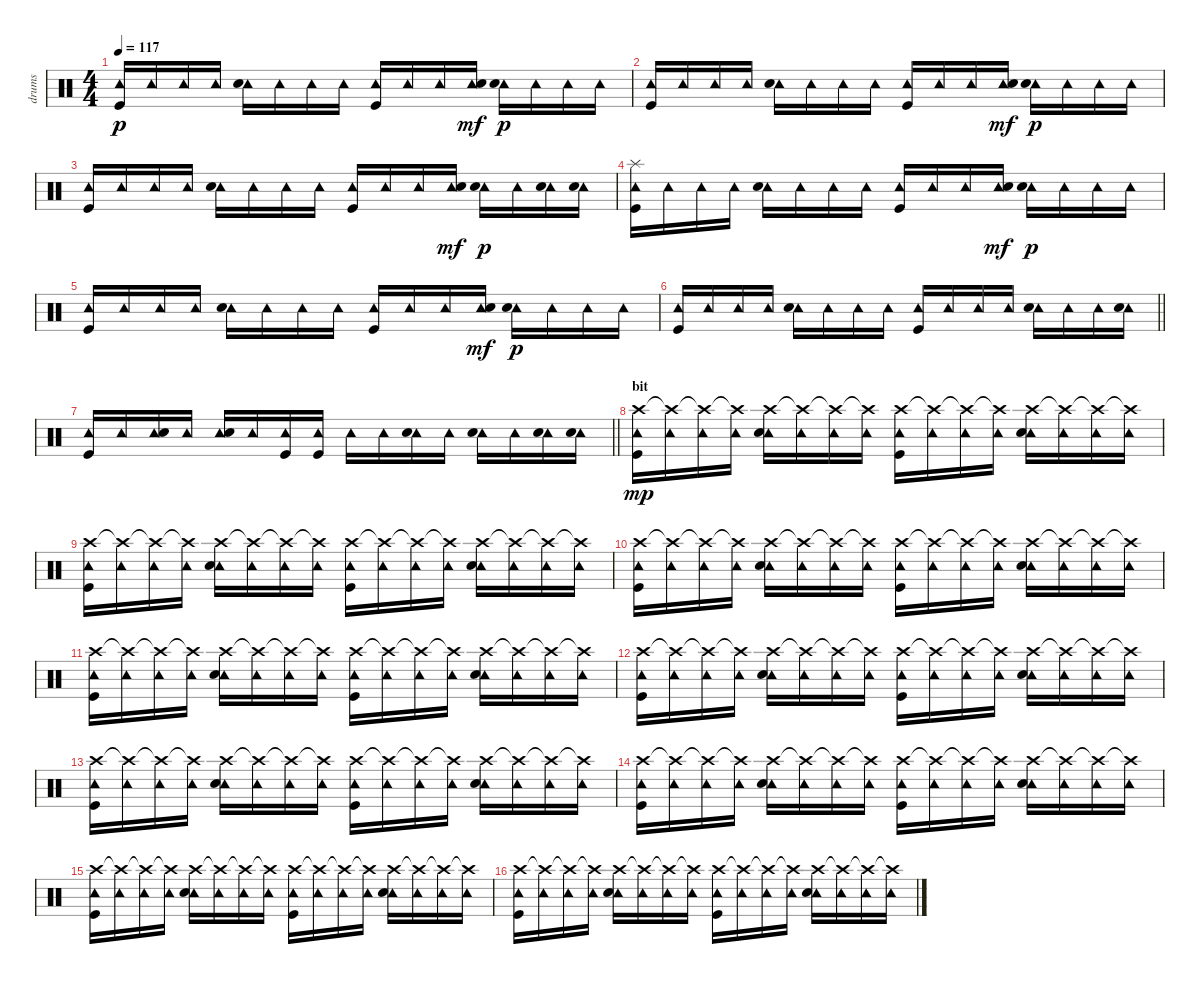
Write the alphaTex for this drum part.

\track ("drums" "drums") {instrument percussion}
\staff {score}
\articulation defaults
\ts (4 4)
\tempo 117
\clef neutral
\ks c
("Tambourine (hit)" "Kick (hit)").16{dy p} "Tambourine (hit)".16 "Tambourine (hit)".16 "Tambourine (hit)".16 ("Tambourine (hit)" "Snare (hit) 2").16 "Tambourine (hit)".16 "Tambourine (hit)".16 "Tambourine (hit)".16 ("Tambourine (hit)" "Kick (hit)").16 "Tambourine (hit)".16 "Tambourine (hit)".16 ("Tambourine (hit)" "Electric Snare (hit)").16{dy mf} ("Tambourine (hit)" "Electric Snare (hit)").16{dy p} "Tambourine (hit)".16 "Tambourine (hit)".16 "Tambourine (hit)".16 |
("Tambourine (hit)" "Kick (hit)").16 "Tambourine (hit)".16 "Tambourine (hit)".16 "Tambourine (hit)".16 ("Tambourine (hit)" "Snare (hit) 2").16 "Tambourine (hit)".16 "Tambourine (hit)".16 "Tambourine (hit)".16 ("Tambourine (hit)" "Kick (hit)").16 "Tambourine (hit)".16 "Tambourine (hit)".16 ("Tambourine (hit)" "Electric Snare (hit)").16{dy mf} ("Tambourine (hit)" "Electric Snare (hit)").16{dy p} "Tambourine (hit)".16 "Tambourine (hit)".16 "Tambourine (hit)".16 |
("Tambourine (hit)" "Kick (hit)").16 "Tambourine (hit)".16 "Tambourine (hit)".16 "Tambourine (hit)".16 ("Tambourine (hit)" "Snare (hit) 2").16 "Tambourine (hit)".16 "Tambourine (hit)".16 "Tambourine (hit)".16 ("Tambourine (hit)" "Kick (hit)").16 "Tambourine (hit)".16 "Tambourine (hit)".16 ("Tambourine (hit)" "Electric Snare (hit)").16{dy mf} ("Tambourine (hit)" "Electric Snare (hit)").16{dy p} "Tambourine (hit)".16 ("Tambourine (hit)" "Electric Snare (hit)").16 ("Tambourine (hit)" "Electric Snare (hit)").16 |
("Splash (hit)" "Tambourine (hit)" "Kick (hit)").16 "Tambourine (hit)".16 "Tambourine (hit)".16 "Tambourine (hit)".16 ("Tambourine (hit)" "Snare (hit) 2").16 "Tambourine (hit)".16 "Tambourine (hit)".16 "Tambourine (hit)".16 ("Tambourine (hit)" "Kick (hit)").16 "Tambourine (hit)".16 "Tambourine (hit)".16 ("Tambourine (hit)" "Electric Snare (hit)").16{dy mf} ("Tambourine (hit)" "Electric Snare (hit)").16{dy p} "Tambourine (hit)".16 "Tambourine (hit)".16 "Tambourine (hit)".16 |
("Tambourine (hit)" "Kick (hit)").16 "Tambourine (hit)".16 "Tambourine (hit)".16 "Tambourine (hit)".16 ("Tambourine (hit)" "Snare (hit) 2").16 "Tambourine (hit)".16 "Tambourine (hit)".16 "Tambourine (hit)".16 ("Tambourine (hit)" "Kick (hit)").16 "Tambourine (hit)".16 "Tambourine (hit)".16 ("Tambourine (hit)" "Electric Snare (hit)").16{dy mf} ("Tambourine (hit)" "Electric Snare (hit)").16{dy p} "Tambourine (hit)".16 "Tambourine (hit)".16 "Tambourine (hit)".16 |
\barLineRight lightlight
("Tambourine (hit)" "Kick (hit)").16 "Tambourine (hit)".16 "Tambourine (hit)".16 "Tambourine (hit)".16 ("Tambourine (hit)" "Snare (hit) 2").16 "Tambourine (hit)".16 "Tambourine (hit)".16 "Tambourine (hit)".16 ("Tambourine (hit)" "Kick (hit)").16 "Tambourine (hit)".16 "Tambourine (hit)".16 "Tambourine (hit)".16 ("Tambourine (hit)" "Snare (hit) 2").16 "Tambourine (hit)".16 "Tambourine (hit)".16 ("Tambourine (hit)" "Snare (hit) 2").16 |
\barLineRight lightlight
("Tambourine (hit)" "Kick (hit)").16 "Tambourine (hit)".16 ("Tambourine (hit)" "Snare (hit) 2").16 "Tambourine (hit)".16 ("Tambourine (hit)" "Snare (hit) 2").16 "Tambourine (hit)".16 ("Tambourine (hit)" "Kick (hit)").16 ("Tambourine (hit)" "Kick (hit)").16 "Tambourine (hit)".16 "Tambourine (hit)".16 ("Tambourine (hit)" "Snare (hit) 2").16 "Tambourine (hit)".16 ("Tambourine (hit)" "Snare (hit) 2").16 "Tambourine (hit)".16 ("Tambourine (hit)" "Electric Snare (hit)").16 ("Tambourine (hit)" "Electric Snare (hit)").16 |
\section ("" "bit")
("Crash high (hit)" "Tambourine (hit)" "Kick (hit)").16{dy mp} ("Crash high (hit)"{t} "Tambourine (hit)").16 ("Crash high (hit)"{t} "Tambourine (hit)").16 ("Crash high (hit)"{t} "Tambourine (hit)").16 ("Crash high (hit)" "Tambourine (hit)" "Snare (hit) 2").16 ("Crash high (hit)"{t} "Tambourine (hit)").16 ("Crash high (hit)"{t} "Tambourine (hit)").16 ("Crash high (hit)"{t} "Tambourine (hit)").16 ("Crash high (hit)" "Tambourine (hit)" "Kick (hit)").16 ("Crash high (hit)"{t} "Tambourine (hit)").16 ("Crash high (hit)"{t} "Tambourine (hit)").16 ("Crash high (hit)"{t} "Tambourine (hit)").16 ("Crash high (hit)" "Tambourine (hit)" "Snare (hit) 2").16 ("Crash high (hit)"{t} "Tambourine (hit)").16 ("Crash high (hit)"{t} "Tambourine (hit)").16 ("Crash high (hit)"{t} "Tambourine (hit)").16 |
("Crash high (hit)" "Tambourine (hit)" "Kick (hit)").16 ("Crash high (hit)"{t} "Tambourine (hit)").16 ("Crash high (hit)"{t} "Tambourine (hit)").16 ("Crash high (hit)"{t} "Tambourine (hit)").16 ("Crash high (hit)" "Tambourine (hit)" "Snare (hit) 2").16 ("Crash high (hit)"{t} "Tambourine (hit)").16 ("Crash high (hit)"{t} "Tambourine (hit)").16 ("Crash high (hit)"{t} "Tambourine (hit)").16 ("Crash high (hit)" "Tambourine (hit)" "Kick (hit)").16 ("Crash high (hit)"{t} "Tambourine (hit)").16 ("Crash high (hit)"{t} "Tambourine (hit)").16 ("Crash high (hit)"{t} "Tambourine (hit)").16 ("Crash high (hit)" "Tambourine (hit)" "Snare (hit) 2").16 ("Crash high (hit)"{t} "Tambourine (hit)").16 ("Crash high (hit)"{t} "Tambourine (hit)").16 ("Crash high (hit)"{t} "Tambourine (hit)").16 |
("Crash high (hit)" "Tambourine (hit)" "Kick (hit)").16 ("Crash high (hit)"{t} "Tambourine (hit)").16 ("Crash high (hit)"{t} "Tambourine (hit)").16 ("Crash high (hit)"{t} "Tambourine (hit)").16 ("Crash high (hit)" "Tambourine (hit)" "Snare (hit) 2").16 ("Crash high (hit)"{t} "Tambourine (hit)").16 ("Crash high (hit)"{t} "Tambourine (hit)").16 ("Crash high (hit)"{t} "Tambourine (hit)").16 ("Crash high (hit)" "Tambourine (hit)" "Kick (hit)").16 ("Crash high (hit)"{t} "Tambourine (hit)").16 ("Crash high (hit)"{t} "Tambourine (hit)").16 ("Crash high (hit)"{t} "Tambourine (hit)").16 ("Crash high (hit)" "Tambourine (hit)" "Snare (hit) 2").16 ("Crash high (hit)"{t} "Tambourine (hit)").16 ("Crash high (hit)"{t} "Tambourine (hit)").16 ("Crash high (hit)"{t} "Tambourine (hit)").16 |
("Crash high (hit)" "Tambourine (hit)" "Kick (hit)").16 ("Crash high (hit)"{t} "Tambourine (hit)").16 ("Crash high (hit)"{t} "Tambourine (hit)").16 ("Crash high (hit)"{t} "Tambourine (hit)").16 ("Crash high (hit)" "Tambourine (hit)" "Snare (hit) 2").16 ("Crash high (hit)"{t} "Tambourine (hit)").16 ("Crash high (hit)"{t} "Tambourine (hit)").16 ("Crash high (hit)"{t} "Tambourine (hit)").16 ("Crash high (hit)" "Tambourine (hit)" "Kick (hit)").16 ("Crash high (hit)"{t} "Tambourine (hit)").16 ("Crash high (hit)"{t} "Tambourine (hit)").16 ("Crash high (hit)"{t} "Tambourine (hit)").16 ("Crash high (hit)" "Tambourine (hit)" "Snare (hit) 2").16 ("Crash high (hit)"{t} "Tambourine (hit)").16 ("Crash high (hit)"{t} "Tambourine (hit)").16 ("Crash high (hit)"{t} "Tambourine (hit)").16 |
("Crash high (hit)" "Tambourine (hit)" "Kick (hit)").16 ("Crash high (hit)"{t} "Tambourine (hit)").16 ("Crash high (hit)"{t} "Tambourine (hit)").16 ("Crash high (hit)"{t} "Tambourine (hit)").16 ("Crash high (hit)" "Tambourine (hit)" "Snare (hit) 2").16 ("Crash high (hit)"{t} "Tambourine (hit)").16 ("Crash high (hit)"{t} "Tambourine (hit)").16 ("Crash high (hit)"{t} "Tambourine (hit)").16 ("Crash high (hit)" "Tambourine (hit)" "Kick (hit)").16 ("Crash high (hit)"{t} "Tambourine (hit)").16 ("Crash high (hit)"{t} "Tambourine (hit)").16 ("Crash high (hit)"{t} "Tambourine (hit)").16 ("Crash high (hit)" "Tambourine (hit)" "Snare (hit) 2").16 ("Crash high (hit)"{t} "Tambourine (hit)").16 ("Crash high (hit)"{t} "Tambourine (hit)").16 ("Crash high (hit)"{t} "Tambourine (hit)").16 |
("Crash high (hit)" "Tambourine (hit)" "Kick (hit)").16 ("Crash high (hit)"{t} "Tambourine (hit)").16 ("Crash high (hit)"{t} "Tambourine (hit)").16 ("Crash high (hit)"{t} "Tambourine (hit)").16 ("Crash high (hit)" "Tambourine (hit)" "Snare (hit) 2").16 ("Crash high (hit)"{t} "Tambourine (hit)").16 ("Crash high (hit)"{t} "Tambourine (hit)").16 ("Crash high (hit)"{t} "Tambourine (hit)").16 ("Crash high (hit)" "Tambourine (hit)" "Kick (hit)").16 ("Crash high (hit)"{t} "Tambourine (hit)").16 ("Crash high (hit)"{t} "Tambourine (hit)").16 ("Crash high (hit)"{t} "Tambourine (hit)").16 ("Crash high (hit)" "Tambourine (hit)" "Snare (hit) 2").16 ("Crash high (hit)"{t} "Tambourine (hit)").16 ("Crash high (hit)"{t} "Tambourine (hit)").16 ("Crash high (hit)"{t} "Tambourine (hit)").16 |
("Crash high (hit)" "Tambourine (hit)" "Kick (hit)").16 ("Crash high (hit)"{t} "Tambourine (hit)").16 ("Crash high (hit)"{t} "Tambourine (hit)").16 ("Crash high (hit)"{t} "Tambourine (hit)").16 ("Crash high (hit)" "Tambourine (hit)" "Snare (hit) 2").16 ("Crash high (hit)"{t} "Tambourine (hit)").16 ("Crash high (hit)"{t} "Tambourine (hit)").16 ("Crash high (hit)"{t} "Tambourine (hit)").16 ("Crash high (hit)" "Tambourine (hit)" "Kick (hit)").16 ("Crash high (hit)"{t} "Tambourine (hit)").16 ("Crash high (hit)"{t} "Tambourine (hit)").16 ("Crash high (hit)"{t} "Tambourine (hit)").16 ("Crash high (hit)" "Tambourine (hit)" "Snare (hit) 2").16 ("Crash high (hit)"{t} "Tambourine (hit)").16 ("Crash high (hit)"{t} "Tambourine (hit)").16 ("Crash high (hit)"{t} "Tambourine (hit)").16 |
("Crash high (hit)" "Tambourine (hit)" "Kick (hit)").16 ("Crash high (hit)"{t} "Tambourine (hit)").16 ("Crash high (hit)"{t} "Tambourine (hit)").16 ("Crash high (hit)"{t} "Tambourine (hit)").16 ("Crash high (hit)" "Tambourine (hit)" "Snare (hit) 2").16 ("Crash high (hit)"{t} "Tambourine (hit)").16 ("Crash high (hit)"{t} "Tambourine (hit)").16 ("Crash high (hit)"{t} "Tambourine (hit)").16 ("Crash high (hit)" "Tambourine (hit)" "Kick (hit)").16 ("Crash high (hit)"{t} "Tambourine (hit)").16 ("Crash high (hit)"{t} "Tambourine (hit)").16 ("Crash high (hit)"{t} "Tambourine (hit)").16 ("Crash high (hit)" "Tambourine (hit)" "Snare (hit) 2").16 ("Crash high (hit)"{t} "Tambourine (hit)").16 ("Crash high (hit)"{t} "Tambourine (hit)").16 ("Crash high (hit)"{t} "Tambourine (hit)").16 |
("Crash high (hit)" "Tambourine (hit)" "Kick (hit)").16 ("Crash high (hit)"{t} "Tambourine (hit)").16 ("Crash high (hit)"{t} "Tambourine (hit)").16 ("Crash high (hit)"{t} "Tambourine (hit)").16 ("Crash high (hit)" "Tambourine (hit)" "Snare (hit) 2").16 ("Crash high (hit)"{t} "Tambourine (hit)").16 ("Crash high (hit)"{t} "Tambourine (hit)").16 ("Crash high (hit)"{t} "Tambourine (hit)").16 ("Crash high (hit)" "Tambourine (hit)" "Kick (hit)").16 ("Crash high (hit)"{t} "Tambourine (hit)").16 ("Crash high (hit)"{t} "Tambourine (hit)").16 ("Crash high (hit)"{t} "Tambourine (hit)").16 ("Crash high (hit)" "Tambourine (hit)" "Snare (hit) 2").16 ("Crash high (hit)"{t} "Tambourine (hit)").16 ("Crash high (hit)"{t} "Tambourine (hit)").16 ("Crash high (hit)"{t} "Tambourine (hit)").16
